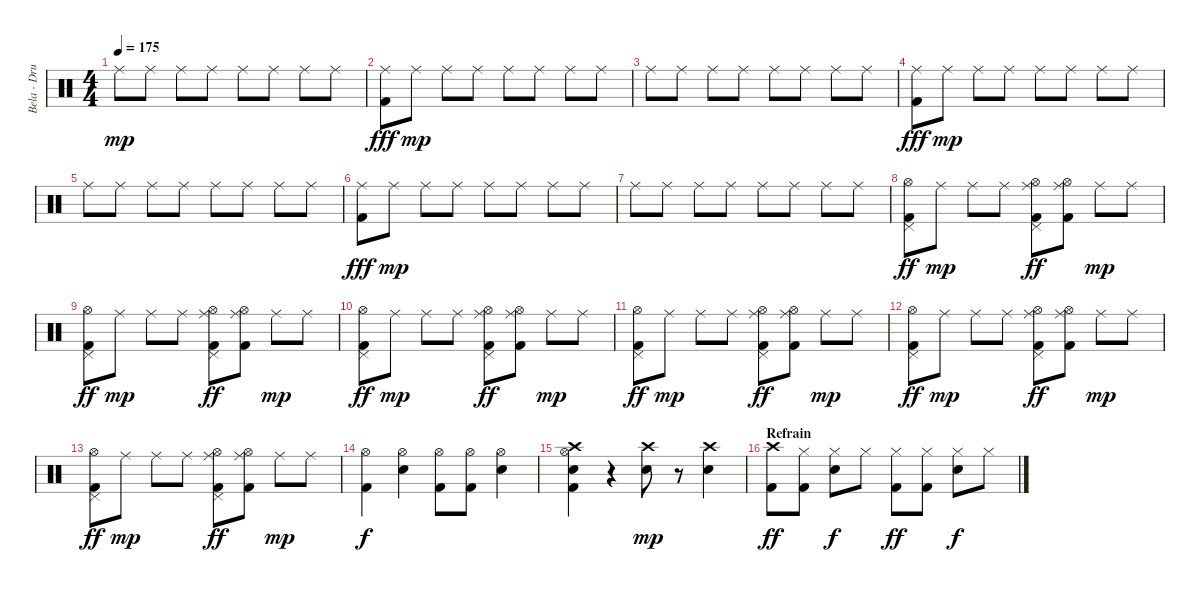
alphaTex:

\track ("Bela - Drums" "Bela - Dru") {instrument percussion}
\staff {score}
\articulation defaults
\ts (4 4)
\tempo 175
\clef neutral
\ks c "Ride (middle)".8{dy mp} "Ride (middle)".8 "Ride (middle)".8 "Ride (middle)".8 "Ride (middle)".8 "Ride (middle)".8 "Ride (middle)".8 "Ride (middle)".8
|
("Ride (middle)" "Kick (hit) 2").8{dy fff} "Ride (middle)".8{dy mp} "Ride (middle)".8 "Ride (middle)".8 "Ride (middle)".8 "Ride (middle)".8 "Ride (middle)".8 "Ride (middle)".8 |
"Ride (middle)".8 "Ride (middle)".8 "Ride (middle)".8 "Ride (middle)".8 "Ride (middle)".8 "Ride (middle)".8 "Ride (middle)".8 "Ride (middle)".8 |
("Ride (middle)" "Kick (hit) 2").8{dy fff} "Ride (middle)".8{dy mp} "Ride (middle)".8 "Ride (middle)".8 "Ride (middle)".8 "Ride (middle)".8 "Ride (middle)".8 "Ride (middle)".8 |
"Ride (middle)".8 "Ride (middle)".8 "Ride (middle)".8 "Ride (middle)".8 "Ride (middle)".8 "Ride (middle)".8 "Ride (middle)".8 "Ride (middle)".8 |
("Ride (middle)" "Kick (hit) 2").8{dy fff} "Ride (middle)".8{dy mp} "Ride (middle)".8 "Ride (middle)".8 "Ride (middle)".8 "Ride (middle)".8 "Ride (middle)".8 "Ride (middle)".8 |
"Ride (middle)".8 "Ride (middle)".8 "Ride (middle)".8 "Ride (middle)".8 "Ride (middle)".8 "Ride (middle)".8 "Ride (middle)".8 "Ride (middle)".8 |
("Pedal Hi-Hat (hit)" "Hi-Hat (open)" "Kick (hit) 2").8{dy ff} "Ride (middle)".8{dy mp} "Ride (middle)".8 "Ride (middle)".8 ("Pedal Hi-Hat (hit)" "Ride (middle)" "Hi-Hat (open)" "Kick (hit) 2").8{dy ff} ("Ride (middle)" "Hi-Hat (open)" "Kick (hit) 2").8 "Ride (middle)".8{dy mp} "Ride (middle)".8 |
("Pedal Hi-Hat (hit)" "Hi-Hat (open)" "Kick (hit) 2").8{dy ff} "Ride (middle)".8{dy mp} "Ride (middle)".8 "Ride (middle)".8 ("Pedal Hi-Hat (hit)" "Ride (middle)" "Hi-Hat (open)" "Kick (hit) 2").8{dy ff} ("Ride (middle)" "Hi-Hat (open)" "Kick (hit) 2").8 "Ride (middle)".8{dy mp} "Ride (middle)".8 |
("Pedal Hi-Hat (hit)" "Hi-Hat (open)" "Kick (hit) 2").8{dy ff} "Ride (middle)".8{dy mp} "Ride (middle)".8 "Ride (middle)".8 ("Pedal Hi-Hat (hit)" "Ride (middle)" "Hi-Hat (open)" "Kick (hit) 2").8{dy ff} ("Ride (middle)" "Hi-Hat (open)" "Kick (hit) 2").8 "Ride (middle)".8{dy mp} "Ride (middle)".8 |
("Pedal Hi-Hat (hit)" "Hi-Hat (open)" "Kick (hit) 2").8{dy ff} "Ride (middle)".8{dy mp} "Ride (middle)".8 "Ride (middle)".8 ("Pedal Hi-Hat (hit)" "Ride (middle)" "Hi-Hat (open)" "Kick (hit) 2").8{dy ff} ("Ride (middle)" "Hi-Hat (open)" "Kick (hit) 2").8 "Ride (middle)".8{dy mp} "Ride (middle)".8 |
("Pedal Hi-Hat (hit)" "Hi-Hat (open)" "Kick (hit) 2").8{dy ff} "Ride (middle)".8{dy mp} "Ride (middle)".8 "Ride (middle)".8 ("Pedal Hi-Hat (hit)" "Ride (middle)" "Hi-Hat (open)" "Kick (hit) 2").8{dy ff} ("Ride (middle)" "Hi-Hat (open)" "Kick (hit) 2").8 "Ride (middle)".8{dy mp} "Ride (middle)".8 |
("Pedal Hi-Hat (hit)" "Hi-Hat (open)" "Kick (hit) 2").8{dy ff} "Ride (middle)".8{dy mp} "Ride (middle)".8 "Ride (middle)".8 ("Pedal Hi-Hat (hit)" "Ride (middle)" "Hi-Hat (open)" "Kick (hit) 2").8{dy ff} ("Ride (middle)" "Hi-Hat (open)" "Kick (hit) 2").8 "Ride (middle)".8{dy mp} "Ride (middle)".8 |
("Hi-Hat (open)" "Kick (hit) 2").4{dy f} ("Hi-Hat (open)" "Electric Snare (hit)").4 ("Hi-Hat (open)" "Kick (hit) 2").8 ("Hi-Hat (open)" "Kick (hit) 2").8 ("Hi-Hat (open)" "Electric Snare (hit)").4 |
("Hi-Hat (open)" "Crash high (hit)" "Electric Snare (hit)" "Kick (hit) 2").4 r.4 ("Crash high (hit)" "Electric Snare (hit)").8{dy mp} r.8 ("Crash high (hit)" "Electric Snare (hit)").4 |
\section ("" "Refrain")
("Crash high (hit)" "Kick (hit) 2").8{dy ff} ("Hi-Hat (closed)" "Kick (hit) 2").8 ("Hi-Hat (closed)" "Electric Snare (hit)").8{dy f} "Hi-Hat (closed)".8 ("Hi-Hat (closed)" "Kick (hit) 2").8{dy ff} ("Hi-Hat (closed)" "Kick (hit) 2").8 ("Hi-Hat (closed)" "Electric Snare (hit)").8{dy f} "Hi-Hat (closed)".8
